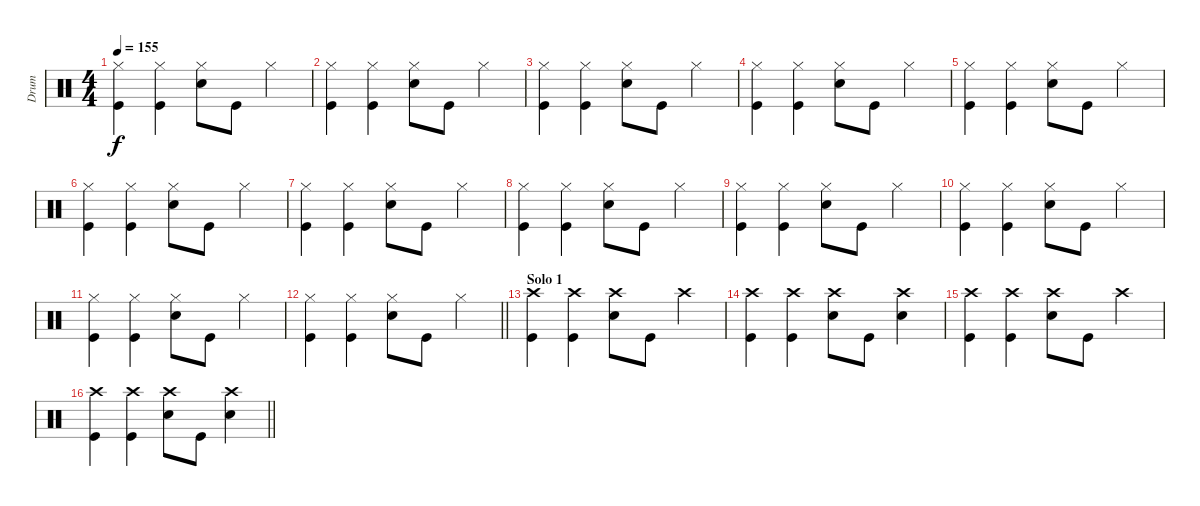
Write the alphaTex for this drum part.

\track ("Drum" "Drum") {instrument percussion}
\staff {score}
\articulation defaults
\ts (4 4)
\tempo 155
\clef neutral
\ks c
("Hi-Hat (closed)" "Kick (hit)").4{dy f} ("Hi-Hat (closed)" "Kick (hit)").4 ("Hi-Hat (closed)" "Snare (hit) 2").8 "Kick (hit)".8 "Hi-Hat (closed)".4 |
("Hi-Hat (closed)" "Kick (hit)").4 ("Hi-Hat (closed)" "Kick (hit)").4 ("Hi-Hat (closed)" "Snare (hit) 2").8 "Kick (hit)".8 "Hi-Hat (closed)".4 |
("Hi-Hat (closed)" "Kick (hit)").4 ("Hi-Hat (closed)" "Kick (hit)").4 ("Hi-Hat (closed)" "Snare (hit) 2").8 "Kick (hit)".8 "Hi-Hat (closed)".4 |
("Hi-Hat (closed)" "Kick (hit)").4 ("Hi-Hat (closed)" "Kick (hit)").4 ("Hi-Hat (closed)" "Snare (hit) 2").8 "Kick (hit)".8 "Hi-Hat (closed)".4 |
("Hi-Hat (closed)" "Kick (hit)").4 ("Hi-Hat (closed)" "Kick (hit)").4 ("Hi-Hat (closed)" "Snare (hit) 2").8 "Kick (hit)".8 "Hi-Hat (closed)".4 |
("Hi-Hat (closed)" "Kick (hit)").4 ("Hi-Hat (closed)" "Kick (hit)").4 ("Hi-Hat (closed)" "Snare (hit) 2").8 "Kick (hit)".8 "Hi-Hat (closed)".4 |
("Hi-Hat (closed)" "Kick (hit)").4 ("Hi-Hat (closed)" "Kick (hit)").4 ("Hi-Hat (closed)" "Snare (hit) 2").8 "Kick (hit)".8 "Hi-Hat (closed)".4 |
("Hi-Hat (closed)" "Kick (hit)").4 ("Hi-Hat (closed)" "Kick (hit)").4 ("Hi-Hat (closed)" "Snare (hit) 2").8 "Kick (hit)".8 "Hi-Hat (closed)".4 |
("Hi-Hat (closed)" "Kick (hit)").4 ("Hi-Hat (closed)" "Kick (hit)").4 ("Hi-Hat (closed)" "Snare (hit) 2").8 "Kick (hit)".8 "Hi-Hat (closed)".4 |
("Hi-Hat (closed)" "Kick (hit)").4 ("Hi-Hat (closed)" "Kick (hit)").4 ("Hi-Hat (closed)" "Snare (hit) 2").8 "Kick (hit)".8 "Hi-Hat (closed)".4 |
("Hi-Hat (closed)" "Kick (hit)").4 ("Hi-Hat (closed)" "Kick (hit)").4 ("Hi-Hat (closed)" "Snare (hit) 2").8 "Kick (hit)".8 "Hi-Hat (closed)".4 |
\barLineRight lightlight
("Hi-Hat (closed)" "Kick (hit)").4 ("Hi-Hat (closed)" "Kick (hit)").4 ("Hi-Hat (closed)" "Snare (hit) 2").8 "Kick (hit)".8 "Hi-Hat (closed)".4 |
\section ("" "Solo 1")
("Crash high (hit)" "Kick (hit)").4 ("Crash high (hit)" "Kick (hit)").4 ("Crash high (hit)" "Snare (hit) 2").8 "Kick (hit)".8 "Crash high (hit)".4 |
("Crash high (hit)" "Kick (hit)").4 ("Crash high (hit)" "Kick (hit)").4 ("Crash high (hit)" "Snare (hit) 2").8 "Kick (hit)".8 ("Crash high (hit)" "Snare (hit) 2").4 |
("Crash high (hit)" "Kick (hit)").4 ("Crash high (hit)" "Kick (hit)").4 ("Crash high (hit)" "Snare (hit) 2").8 "Kick (hit)".8 "Crash high (hit)".4 |
\barLineRight lightlight
("Crash high (hit)" "Kick (hit)").4 ("Crash high (hit)" "Kick (hit)").4 ("Crash high (hit)" "Snare (hit) 2").8 "Kick (hit)".8 ("Crash high (hit)" "Snare (hit) 2").4
